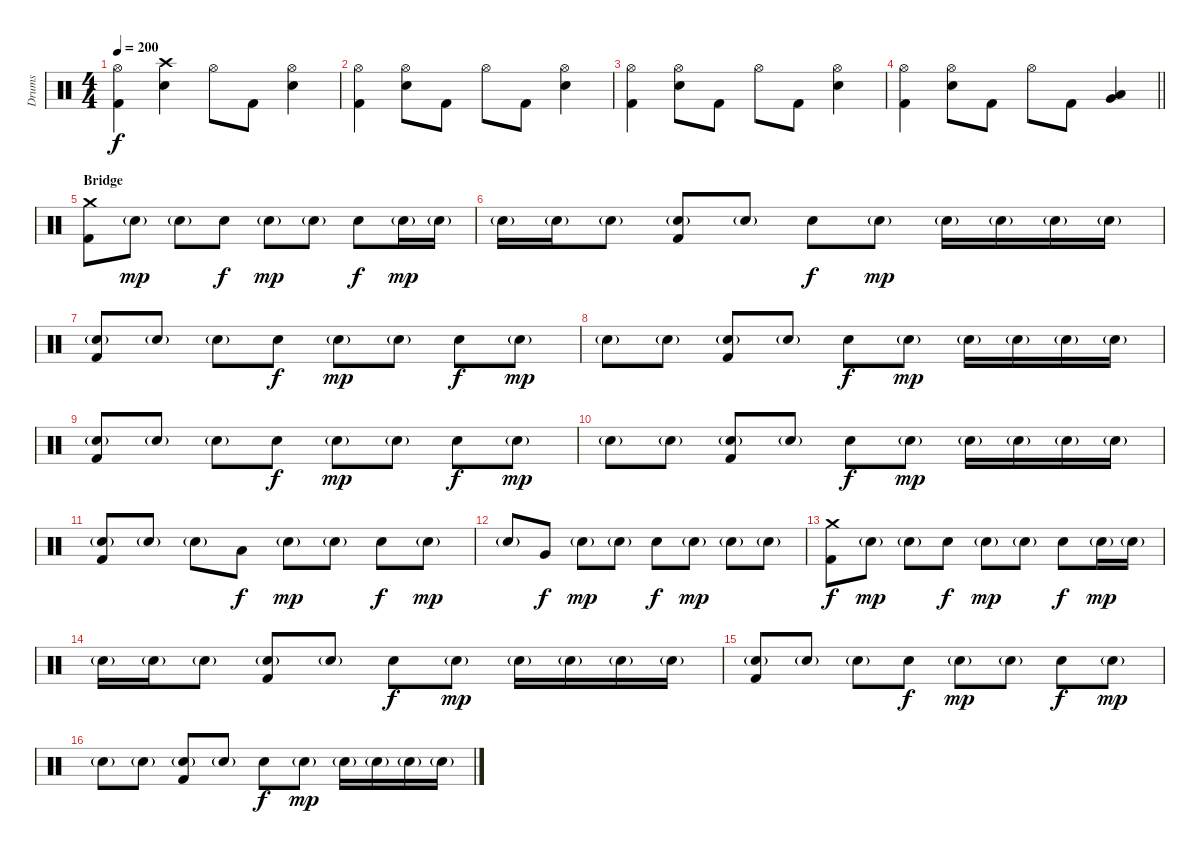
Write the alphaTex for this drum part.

\track ("Drums" "Drums") {instrument percussion}
\staff {score}
\articulation defaults
\ts (4 4)
\tempo 200
\clef neutral
\ks c
("Hi-Hat (open)" "Kick (hit) 2").4{dy f} ("Crash high (hit)" "Electric Snare (hit)").4 "Hi-Hat (open)".8 "Kick (hit) 2".8 ("Hi-Hat (open)" "Electric Snare (hit)").4 |
("Hi-Hat (open)" "Kick (hit) 2").4 ("Hi-Hat (open)" "Electric Snare (hit)").8 "Kick (hit) 2".8 "Hi-Hat (open)".8 "Kick (hit) 2".8 ("Hi-Hat (open)" "Electric Snare (hit)").4 |
("Hi-Hat (open)" "Kick (hit) 2").4 ("Hi-Hat (open)" "Electric Snare (hit)").8 "Kick (hit) 2".8 "Hi-Hat (open)".8 "Kick (hit) 2".8 ("Hi-Hat (open)" "Electric Snare (hit)").4 |
\barLineRight lightlight
("Hi-Hat (open)" "Kick (hit) 2").4 ("Hi-Hat (open)" "Electric Snare (hit)").8 "Kick (hit) 2".8 "Hi-Hat (open)".8 "Kick (hit) 2".8 ("Low Floor Tom (hit)" "Very Low Tom (hit)").4 |
\section ("" "Bridge")
("Crash medium (hit)" "Kick (hit) 2").8 "Electric Snare (hit)"{g}.8{dy mp} "Electric Snare (hit)"{g}.8 "Electric Snare (hit)".8{dy f} "Electric Snare (hit)"{g}.8{dy mp} "Electric Snare (hit)"{g}.8 "Electric Snare (hit)".8{dy f} "Electric Snare (hit)"{g}.16{dy mp} "Electric Snare (hit)"{g}.16 |
"Electric Snare (hit)"{g}.16 "Electric Snare (hit)"{g}.16 "Electric Snare (hit)"{g}.8 ("Electric Snare (hit)"{g} "Kick (hit) 2").8 "Electric Snare (hit)"{g}.8 "Electric Snare (hit)".8{dy f} "Electric Snare (hit)"{g}.8{dy mp} "Electric Snare (hit)"{g}.16 "Electric Snare (hit)"{g}.16 "Electric Snare (hit)"{g}.16 "Electric Snare (hit)"{g}.16 |
("Electric Snare (hit)"{g} "Kick (hit) 2").8 "Electric Snare (hit)"{g}.8 "Electric Snare (hit)"{g}.8 "Electric Snare (hit)".8{dy f} "Electric Snare (hit)"{g}.8{dy mp} "Electric Snare (hit)"{g}.8 "Electric Snare (hit)".8{dy f} "Electric Snare (hit)"{g}.8{dy mp} |
"Electric Snare (hit)"{g}.8 "Electric Snare (hit)"{g}.8 ("Electric Snare (hit)"{g} "Kick (hit) 2").8 "Electric Snare (hit)"{g}.8 "Electric Snare (hit)".8{dy f} "Electric Snare (hit)"{g}.8{dy mp} "Electric Snare (hit)"{g}.16 "Electric Snare (hit)"{g}.16 "Electric Snare (hit)"{g}.16 "Electric Snare (hit)"{g}.16 |
("Electric Snare (hit)"{g} "Kick (hit) 2").8 "Electric Snare (hit)"{g}.8 "Electric Snare (hit)"{g}.8 "Electric Snare (hit)".8{dy f} "Electric Snare (hit)"{g}.8{dy mp} "Electric Snare (hit)"{g}.8 "Electric Snare (hit)".8{dy f} "Electric Snare (hit)"{g}.8{dy mp} |
"Electric Snare (hit)"{g}.8 "Electric Snare (hit)"{g}.8 ("Electric Snare (hit)"{g} "Kick (hit) 2").8 "Electric Snare (hit)"{g}.8 "Electric Snare (hit)".8{dy f} "Electric Snare (hit)"{g}.8{dy mp} "Electric Snare (hit)"{g}.16 "Electric Snare (hit)"{g}.16 "Electric Snare (hit)"{g}.16 "Electric Snare (hit)"{g}.16 |
("Electric Snare (hit)"{g} "Kick (hit) 2").8 "Electric Snare (hit)"{g}.8 "Electric Snare (hit)"{g}.8 "Low Tom (hit)".8{dy f} "Electric Snare (hit)"{g}.8{dy mp} "Electric Snare (hit)"{g}.8 "Electric Snare (hit)".8{dy f} "Electric Snare (hit)"{g}.8{dy mp} |
"Electric Snare (hit)"{g}.8 "Very Low Tom (hit)".8{dy f} "Electric Snare (hit)"{g}.8{dy mp} "Electric Snare (hit)"{g}.8 "Electric Snare (hit)".8{dy f} "Electric Snare (hit)"{g}.8{dy mp} "Electric Snare (hit)"{g}.8 "Electric Snare (hit)"{g}.8 |
("Crash medium (hit)" "Kick (hit) 2").8{dy f} "Electric Snare (hit)"{g}.8{dy mp} "Electric Snare (hit)"{g}.8 "Electric Snare (hit)".8{dy f} "Electric Snare (hit)"{g}.8{dy mp} "Electric Snare (hit)"{g}.8 "Electric Snare (hit)".8{dy f} "Electric Snare (hit)"{g}.16{dy mp} "Electric Snare (hit)"{g}.16 |
"Electric Snare (hit)"{g}.16 "Electric Snare (hit)"{g}.16 "Electric Snare (hit)"{g}.8 ("Electric Snare (hit)"{g} "Kick (hit) 2").8 "Electric Snare (hit)"{g}.8 "Electric Snare (hit)".8{dy f} "Electric Snare (hit)"{g}.8{dy mp} "Electric Snare (hit)"{g}.16 "Electric Snare (hit)"{g}.16 "Electric Snare (hit)"{g}.16 "Electric Snare (hit)"{g}.16 |
("Electric Snare (hit)"{g} "Kick (hit) 2").8 "Electric Snare (hit)"{g}.8 "Electric Snare (hit)"{g}.8 "Electric Snare (hit)".8{dy f} "Electric Snare (hit)"{g}.8{dy mp} "Electric Snare (hit)"{g}.8 "Electric Snare (hit)".8{dy f} "Electric Snare (hit)"{g}.8{dy mp} |
"Electric Snare (hit)"{g}.8 "Electric Snare (hit)"{g}.8 ("Electric Snare (hit)"{g} "Kick (hit) 2").8 "Electric Snare (hit)"{g}.8 "Electric Snare (hit)".8{dy f} "Electric Snare (hit)"{g}.8{dy mp} "Electric Snare (hit)"{g}.16 "Electric Snare (hit)"{g}.16 "Electric Snare (hit)"{g}.16 "Electric Snare (hit)"{g}.16
